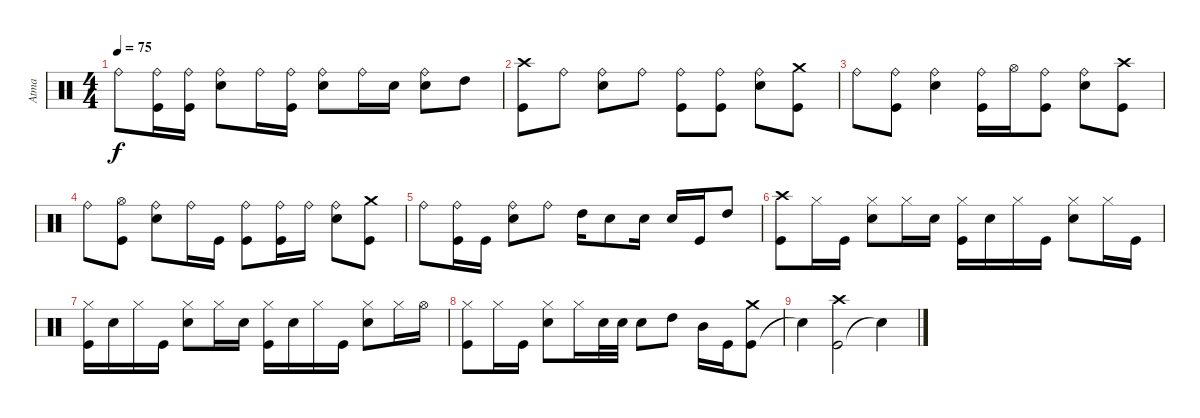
\track ("Atma" "Atma") {instrument percussion}
\staff {score}
\articulation defaults
\ts (4 4)
\tempo 75
\clef neutral
\ks c "Ride (bell)".8{dy f}
("Kick (hit)" "Ride (bell)").16 ("Kick (hit)" "Ride (bell)").16 ("Snare (hit) 2" "Ride (bell)").8 "Ride (bell)".16 ("Kick (hit)" "Ride (bell)").16 ("Snare (hit) 2" "Ride (bell)").8 "Ride (bell)".16 "Snare (hit) 2".16 ("Snare (hit) 2" "Ride (bell)").8 "High Tom (hit)".8 |
("Kick (hit)" "Crash high (hit)").8 "Ride (bell)".8 ("Snare (hit) 2" "Ride (bell)").8 "Ride (bell)".8 ("Kick (hit)" "Ride (bell)").8 ("Kick (hit)" "Ride (bell)").8 ("Snare (hit) 2" "Ride (bell)").8 ("Kick (hit)" "Crash medium (hit)").8 |
"Ride (bell)".8 ("Kick (hit)" "Ride (bell)").8 ("Snare (hit) 2" "Ride (bell)").4 ("Kick (hit)" "Ride (bell)").16 "Hi-Hat (open)".16 ("Kick (hit)" "Ride (bell)").8 ("Snare (hit) 2" "Ride (bell)").8 ("Kick (hit)" "Crash high (hit)").8 |
"Ride (bell)".8 ("Kick (hit)" "Hi-Hat (open)").8 ("Snare (hit) 2" "Ride (bell)").8 "Ride (bell)".16 "Kick (hit)".16 ("Kick (hit)" "Ride (bell)").8 ("Kick (hit)" "Ride (bell)").16 "Ride (bell)".16 ("Snare (hit) 2" "Ride (bell)").8 ("Kick (hit)" "Crash medium (hit)").8 |
"Ride (bell)".8 ("Kick (hit)" "Ride (bell)").16 "Kick (hit)".16 ("Snare (hit) 2" "Ride (bell)").8 "Ride (bell)".8 "High Tom (hit)".16 "Snare (hit) 2".8 "Snare (hit) 2".16 "Snare (hit) 2".16 "Kick (hit)".16 "High Tom (hit)".8 |
("Kick (hit)" "Crash high (hit)").8 "Hi-Hat (closed)".16 "Kick (hit)".16 ("Snare (hit) 2" "Hi-Hat (closed)").8 "Hi-Hat (closed)".16 "Snare (hit) 2".16 ("Kick (hit)" "Hi-Hat (closed)").16 "Snare (hit) 2".16 "Hi-Hat (closed)".16 "Kick (hit)".16 ("Snare (hit) 2" "Hi-Hat (closed)").8 "Hi-Hat (closed)".16 "Kick (hit)".16 |
("Kick (hit)" "Hi-Hat (closed)").16 "Snare (hit) 2".16 "Hi-Hat (closed)".16 "Kick (hit)".16 ("Snare (hit) 2" "Hi-Hat (closed)").8 "Hi-Hat (closed)".16 "Snare (hit) 2".16 ("Kick (hit)" "Hi-Hat (closed)").16 "Snare (hit) 2".16 "Hi-Hat (closed)".16 "Kick (hit)".16 ("Snare (hit) 2" "Hi-Hat (closed)").8 "Hi-Hat (closed)".16 "Hi-Hat (open)".16 |
("Kick (hit)" "Hi-Hat (closed)").8 "Hi-Hat (closed)".16 "Kick (hit)".16 ("Snare (hit) 2" "Hi-Hat (closed)").8 "Hi-Hat (closed)".16 "Snare (hit) 2".32 "Snare (hit) 2".32 "Snare (hit) 2".8 "High Tom (hit)".8 "Mid Tom (hit)".16 "Kick (hit)".16 ("Kick (hit)" "Crash medium (hit)").8 |
"Snare (hit)"{t}.4 ("Kick (hit)" "Crash high (hit)").2 "Snare (hit)"{t}.4
